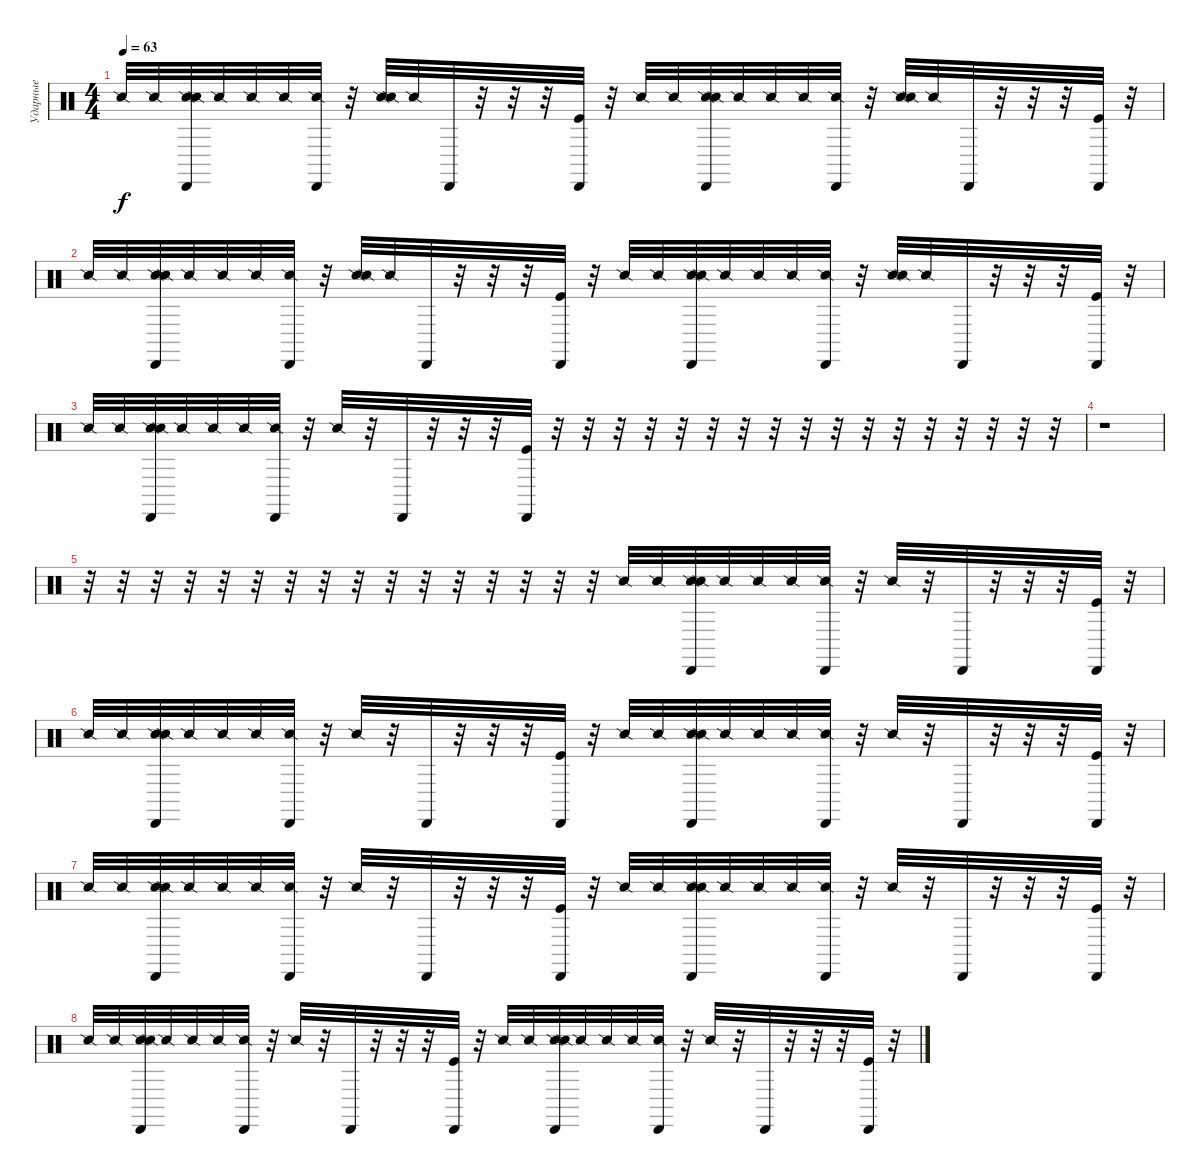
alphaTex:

\track ("Ударные" "Ударные") {instrument percussion}
\staff {score}
\articulation defaults
\ts (4 4)
\tempo 63
\clef neutral
\ks c "Snare (side stick) 2".32{dy f} "Snare (side stick) 2".32
("Snare (side stick) 2" "Snare (side stick) 2" "Cabasa (hit)").32 "Snare (side stick) 2".32 "Snare (side stick) 2".32 "Snare (side stick) 2".32 ("Snare (side stick) 2" "Cabasa (hit)").32 r.32 ("Snare (side stick) 2" "Snare (side stick) 2").32 "Snare (side stick) 2".32 "Cabasa (hit)".32 r.32 r.32 r.32 ("Kick (hit)" "Cabasa (hit)").32 r.32 "Snare (side stick) 2".32 "Snare (side stick) 2".32 ("Snare (side stick) 2" "Snare (side stick) 2" "Cabasa (hit)").32 "Snare (side stick) 2".32 "Snare (side stick) 2".32 "Snare (side stick) 2".32 ("Snare (side stick) 2" "Cabasa (hit)").32 r.32 ("Snare (side stick) 2" "Snare (side stick) 2").32 "Snare (side stick) 2".32 "Cabasa (hit)".32 r.32 r.32 r.32 ("Kick (hit)" "Cabasa (hit)").32 r.32 |
"Snare (side stick) 2".32 "Snare (side stick) 2".32 ("Snare (side stick) 2" "Snare (side stick) 2" "Cabasa (hit)").32 "Snare (side stick) 2".32 "Snare (side stick) 2".32 "Snare (side stick) 2".32 ("Snare (side stick) 2" "Cabasa (hit)").32 r.32 ("Snare (side stick) 2" "Snare (side stick) 2").32 "Snare (side stick) 2".32 "Cabasa (hit)".32 r.32 r.32 r.32 ("Kick (hit)" "Cabasa (hit)").32 r.32 "Snare (side stick) 2".32 "Snare (side stick) 2".32 ("Snare (side stick) 2" "Snare (side stick) 2" "Cabasa (hit)").32 "Snare (side stick) 2".32 "Snare (side stick) 2".32 "Snare (side stick) 2".32 ("Snare (side stick) 2" "Cabasa (hit)").32 r.32 ("Snare (side stick) 2" "Snare (side stick) 2").32 "Snare (side stick) 2".32 "Cabasa (hit)".32 r.32 r.32 r.32 ("Kick (hit)" "Cabasa (hit)").32 r.32 |
"Snare (side stick) 2".32 "Snare (side stick) 2".32 ("Snare (side stick) 2" "Snare (side stick) 2" "Cabasa (hit)").32 "Snare (side stick) 2".32 "Snare (side stick) 2".32 "Snare (side stick) 2".32 ("Snare (side stick) 2" "Cabasa (hit)").32 r.32 "Snare (side stick) 2".32 r.32 "Cabasa (hit)".32 r.32 r.32 r.32 ("Kick (hit)" "Cabasa (hit)").32 r.32 r.32 r.32 r.32 r.32 r.32 r.32 r.32 r.32 r.32 r.32 r.32 r.32 r.32 r.32 r.32 r.32 |
r.1 |
r.32 r.32 r.32 r.32 r.32 r.32 r.32 r.32 r.32 r.32 r.32 r.32 r.32 r.32 r.32 r.32 "Snare (side stick) 2".32 "Snare (side stick) 2".32 ("Snare (side stick) 2" "Snare (side stick) 2" "Cabasa (hit)").32 "Snare (side stick) 2".32 "Snare (side stick) 2".32 "Snare (side stick) 2".32 ("Snare (side stick) 2" "Cabasa (hit)").32 r.32 "Snare (side stick) 2".32 r.32 "Cabasa (hit)".32 r.32 r.32 r.32 ("Kick (hit)" "Cabasa (hit)").32 r.32 |
"Snare (side stick) 2".32 "Snare (side stick) 2".32 ("Snare (side stick) 2" "Snare (side stick) 2" "Cabasa (hit)").32 "Snare (side stick) 2".32 "Snare (side stick) 2".32 "Snare (side stick) 2".32 ("Snare (side stick) 2" "Cabasa (hit)").32 r.32 "Snare (side stick) 2".32 r.32 "Cabasa (hit)".32 r.32 r.32 r.32 ("Kick (hit)" "Cabasa (hit)").32 r.32 "Snare (side stick) 2".32 "Snare (side stick) 2".32 ("Snare (side stick) 2" "Snare (side stick) 2" "Cabasa (hit)").32 "Snare (side stick) 2".32 "Snare (side stick) 2".32 "Snare (side stick) 2".32 ("Snare (side stick) 2" "Cabasa (hit)").32 r.32 "Snare (side stick) 2".32 r.32 "Cabasa (hit)".32 r.32 r.32 r.32 ("Kick (hit)" "Cabasa (hit)").32 r.32 |
"Snare (side stick) 2".32 "Snare (side stick) 2".32 ("Snare (side stick) 2" "Snare (side stick) 2" "Cabasa (hit)").32 "Snare (side stick) 2".32 "Snare (side stick) 2".32 "Snare (side stick) 2".32 ("Snare (side stick) 2" "Cabasa (hit)").32 r.32 "Snare (side stick) 2".32 r.32 "Cabasa (hit)".32 r.32 r.32 r.32 ("Kick (hit)" "Cabasa (hit)").32 r.32 "Snare (side stick) 2".32 "Snare (side stick) 2".32 ("Snare (side stick) 2" "Snare (side stick) 2" "Cabasa (hit)").32 "Snare (side stick) 2".32 "Snare (side stick) 2".32 "Snare (side stick) 2".32 ("Snare (side stick) 2" "Cabasa (hit)").32 r.32 "Snare (side stick) 2".32 r.32 "Cabasa (hit)".32 r.32 r.32 r.32 ("Kick (hit)" "Cabasa (hit)").32 r.32 |
"Snare (side stick) 2".32 "Snare (side stick) 2".32 ("Snare (side stick) 2" "Snare (side stick) 2" "Cabasa (hit)").32 "Snare (side stick) 2".32 "Snare (side stick) 2".32 "Snare (side stick) 2".32 ("Snare (side stick) 2" "Cabasa (hit)").32 r.32 "Snare (side stick) 2".32 r.32 "Cabasa (hit)".32 r.32 r.32 r.32 ("Kick (hit)" "Cabasa (hit)").32 r.32 "Snare (side stick) 2".32 "Snare (side stick) 2".32 ("Snare (side stick) 2" "Snare (side stick) 2" "Cabasa (hit)").32 "Snare (side stick) 2".32 "Snare (side stick) 2".32 "Snare (side stick) 2".32 ("Snare (side stick) 2" "Cabasa (hit)").32 r.32 "Snare (side stick) 2".32 r.32 "Cabasa (hit)".32 r.32 r.32 r.32 ("Kick (hit)" "Cabasa (hit)").32 r.32
